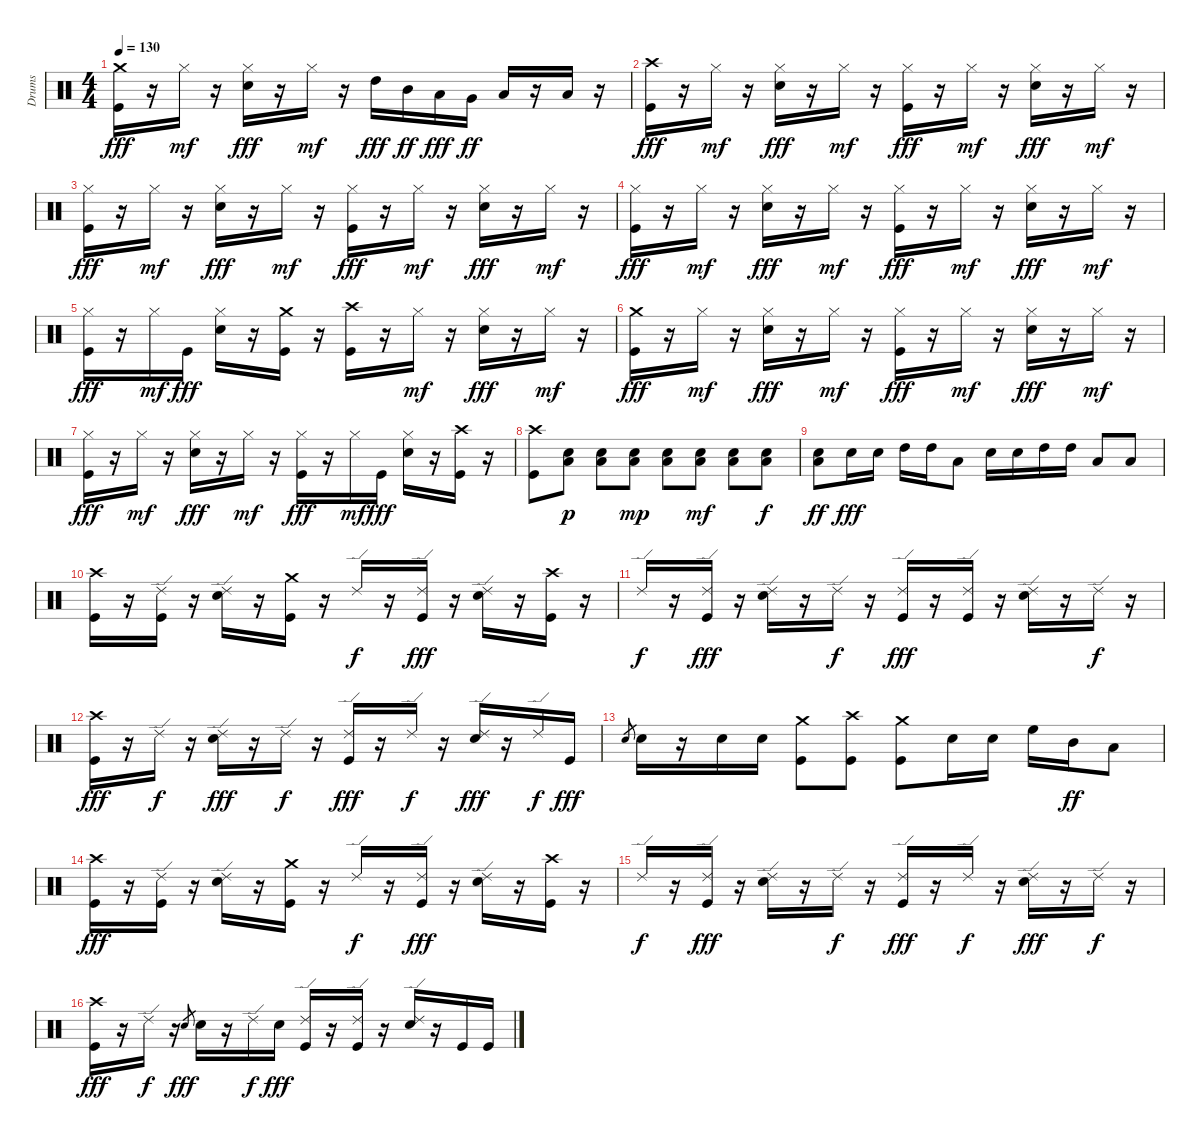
\track ("Drums" "Drums") {instrument percussion}
\staff {score}
\articulation defaults
\ts (4 4)
\tempo 130
\clef neutral
\ks c
("Kick (hit)" "Crash medium (hit)").16{dy fff} r.16 "Hi-Hat (closed)".16{dy mf} r.16 ("Electric Snare (hit)" "Hi-Hat (closed)").16{dy fff} r.16 "Hi-Hat (closed)".16{dy mf} r.16 "High Tom (hit)".16{dy fff} "Mid Tom (hit)".16{dy ff} "Low Tom (hit)".16{dy fff} "Very Low Tom (hit)".16{dy ff} "Low Floor Tom (hit)".16 r.16 "Low Floor Tom (hit)".16 r.16 |
("Kick (hit)" "Crash high (hit)").16{dy fff} r.16 "Hi-Hat (closed)".16{dy mf} r.16 ("Electric Snare (hit)" "Hi-Hat (closed)").16{dy fff} r.16 "Hi-Hat (closed)".16{dy mf} r.16 ("Kick (hit)" "Hi-Hat (closed)").16{dy fff} r.16 "Hi-Hat (closed)".16{dy mf} r.16 ("Electric Snare (hit)" "Hi-Hat (closed)").16{dy fff} r.16 "Hi-Hat (closed)".16{dy mf} r.16 |
("Kick (hit)" "Hi-Hat (closed)").16{dy fff} r.16 "Hi-Hat (closed)".16{dy mf} r.16 ("Electric Snare (hit)" "Hi-Hat (closed)").16{dy fff} r.16 "Hi-Hat (closed)".16{dy mf} r.16 ("Kick (hit)" "Hi-Hat (closed)").16{dy fff} r.16 "Hi-Hat (closed)".16{dy mf} r.16 ("Electric Snare (hit)" "Hi-Hat (closed)").16{dy fff} r.16 "Hi-Hat (closed)".16{dy mf} r.16 |
("Kick (hit)" "Hi-Hat (closed)").16{dy fff} r.16 "Hi-Hat (closed)".16{dy mf} r.16 ("Electric Snare (hit)" "Hi-Hat (closed)").16{dy fff} r.16 "Hi-Hat (closed)".16{dy mf} r.16 ("Kick (hit)" "Hi-Hat (closed)").16{dy fff} r.16 "Hi-Hat (closed)".16{dy mf} r.16 ("Electric Snare (hit)" "Hi-Hat (closed)").16{dy fff} r.16 "Hi-Hat (closed)".16{dy mf} r.16 |
("Kick (hit)" "Hi-Hat (closed)").16{dy fff} r.16 "Hi-Hat (closed)".16{dy mf} "Kick (hit)".16{dy fff} ("Electric Snare (hit)" "Hi-Hat (closed)").16 r.16 ("Kick (hit)" "Crash medium (hit)").16 r.16 ("Kick (hit)" "Crash high (hit)").16 r.16 "Hi-Hat (closed)".16{dy mf} r.16 ("Electric Snare (hit)" "Hi-Hat (closed)").16{dy fff} r.16 "Hi-Hat (closed)".16{dy mf} r.16 |
("Kick (hit)" "Crash medium (hit)").16{dy fff} r.16 "Hi-Hat (closed)".16{dy mf} r.16 ("Electric Snare (hit)" "Hi-Hat (closed)").16{dy fff} r.16 "Hi-Hat (closed)".16{dy mf} r.16 ("Kick (hit)" "Hi-Hat (closed)").16{dy fff} r.16 "Hi-Hat (closed)".16{dy mf} r.16 ("Electric Snare (hit)" "Hi-Hat (closed)").16{dy fff} r.16 "Hi-Hat (closed)".16{dy mf} r.16 |
("Kick (hit)" "Hi-Hat (closed)").16{dy fff} r.16 "Hi-Hat (closed)".16{dy mf} r.16 ("Electric Snare (hit)" "Hi-Hat (closed)").16{dy fff} r.16 "Hi-Hat (closed)".16{dy mf} r.16 ("Kick (hit)" "Hi-Hat (closed)").16{dy fff} r.16 "Hi-Hat (closed)".16{dy mf} "Kick (hit)".16{dy fff} ("Electric Snare (hit)" "Hi-Hat (closed)").16 r.16 ("Kick (hit)" "Crash high (hit)").16 r.16 |
("Kick (hit)" "Crash high (hit)").8 ("Low Floor Tom (hit)" "Electric Snare (hit)").8{dy p} ("Low Floor Tom (hit)" "Electric Snare (hit)").8 ("Low Floor Tom (hit)" "Electric Snare (hit)").8{dy mp} ("Low Floor Tom (hit)" "Electric Snare (hit)").8 ("Low Floor Tom (hit)" "Electric Snare (hit)").8{dy mf} ("Low Floor Tom (hit)" "Electric Snare (hit)").8 ("Low Floor Tom (hit)" "Electric Snare (hit)").8{dy f} |
("Low Floor Tom (hit)" "Electric Snare (hit)").8{dy ff} "Electric Snare (hit)".16{dy fff} "Electric Snare (hit)".16 "High Tom (hit)".16 "High Tom (hit)".16 "Low Tom (hit)".8 "Electric Snare (hit)".16 "Electric Snare (hit)".16 "High Tom (hit)".16 "High Tom (hit)".16 "Low Tom (hit)".8 "Low Floor Tom (hit)".8 |
("Kick (hit)" "Crash high (hit)").16 r.16 ("Kick (hit)" "Ride (edge) 2").16 r.16 ("Electric Snare (hit)" "Ride (edge) 2").16 r.16 ("Kick (hit)" "Crash medium (hit)").16 r.16 "Ride (edge) 2".16{dy f} r.16 ("Kick (hit)" "Ride (edge) 2").16{dy fff} r.16 ("Electric Snare (hit)" "Ride (edge) 2").16 r.16 ("Kick (hit)" "Crash high (hit)").16 r.16 |
"Ride (edge) 2".16{dy f} r.16 ("Kick (hit)" "Ride (edge) 2").16{dy fff} r.16 ("Electric Snare (hit)" "Ride (edge) 2").16 r.16 "Ride (edge) 2".16{dy f} r.16 ("Kick (hit)" "Ride (edge) 2").16{dy fff} r.16 ("Kick (hit)" "Ride (edge) 2").16 r.16 ("Electric Snare (hit)" "Ride (edge) 2").16 r.16 "Ride (edge) 2".16{dy f} r.16 |
("Kick (hit)" "Crash high (hit)").16{dy fff} r.16 "Ride (edge) 2".16{dy f} r.16 ("Electric Snare (hit)" "Ride (edge) 2").16{dy fff} r.16 "Ride (edge) 2".16{dy f} r.16 ("Kick (hit)" "Ride (edge) 2").16{dy fff} r.16 "Ride (edge) 2".16{dy f} r.16 ("Electric Snare (hit)" "Ride (edge) 2").16{dy fff} r.16 "Ride (edge) 2".16{dy f} "Kick (hit)".16{dy fff} |
"Electric Snare (hit)".8{gr} "Electric Snare (hit)".16 r.16 "Electric Snare (hit)".16 "Electric Snare (hit)".16 ("Kick (hit)" "Crash medium (hit)").8 ("Kick (hit)" "Crash high (hit)").8 ("Kick (hit)" "Crash medium (hit)").8 "Electric Snare (hit)".16 "Electric Snare (hit)".16 "High Floor Tom (hit)".16 "Mid Tom (hit)".16{dy ff} "Low Tom (hit)".8 |
("Kick (hit)" "Crash high (hit)").16{dy fff} r.16 ("Kick (hit)" "Ride (edge) 2").16 r.16 ("Electric Snare (hit)" "Ride (edge) 2").16 r.16 ("Kick (hit)" "Crash medium (hit)").16 r.16 "Ride (edge) 2".16{dy f} r.16 ("Kick (hit)" "Ride (edge) 2").16{dy fff} r.16 ("Electric Snare (hit)" "Ride (edge) 2").16 r.16 ("Kick (hit)" "Crash high (hit)").16 r.16 |
"Ride (edge) 2".16{dy f} r.16 ("Kick (hit)" "Ride (edge) 2").16{dy fff} r.16 ("Electric Snare (hit)" "Ride (edge) 2").16 r.16 "Ride (edge) 2".16{dy f} r.16 ("Kick (hit)" "Ride (edge) 2").16{dy fff} r.16 "Ride (edge) 2".16{dy f} r.16 ("Electric Snare (hit)" "Ride (edge) 2").16{dy fff} r.16 "Ride (edge) 2".16{dy f} r.16 |
("Kick (hit)" "Crash high (hit)").16{dy fff} r.16 "Ride (edge) 2".16{dy f} r.16 "Electric Snare (hit)".8{gr dy fff} "Electric Snare (hit)".16 r.16 "Ride (edge) 2".16{dy f} "Electric Snare (hit)".16{dy fff} ("Kick (hit)" "Ride (edge) 2").16 r.16 ("Kick (hit)" "Ride (edge) 2").16 r.16 ("Electric Snare (hit)" "Ride (edge) 2").16 r.16 "Kick (hit)".16 "Kick (hit)".16
